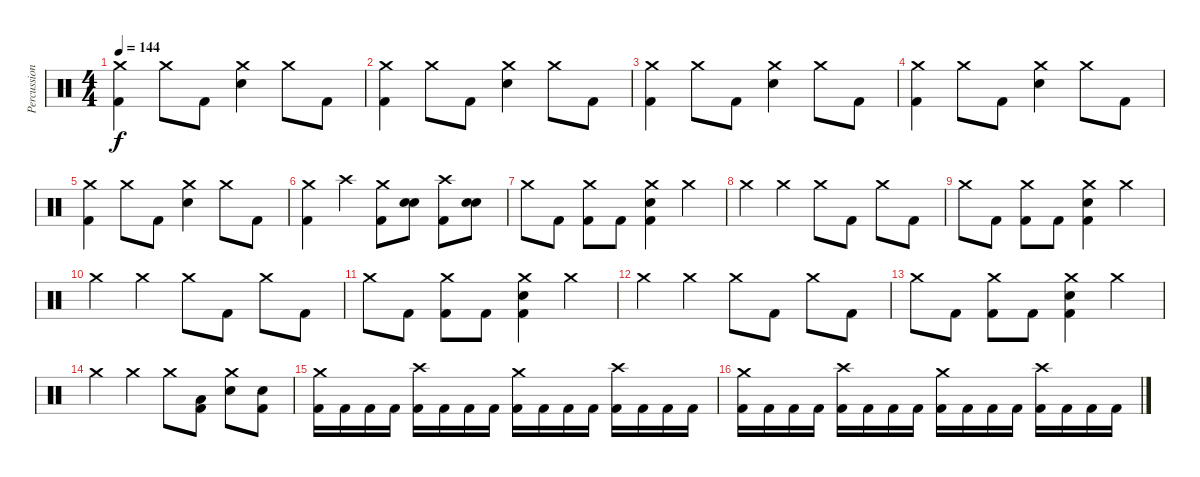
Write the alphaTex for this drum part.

\track ("Percussion" "Percussion") {instrument percussion}
\staff {score}
\articulation defaults
\ts (4 4)
\tempo 144
\clef neutral
\ks c
("Crash medium (hit)" "Kick (hit) 2").4{dy f} "Crash medium (hit)".8 "Kick (hit) 2".8 ("Crash medium (hit)" "Electric Snare (hit)").4 "Crash medium (hit)".8 "Kick (hit) 2".8 |
("Crash medium (hit)" "Kick (hit) 2").4 "Crash medium (hit)".8 "Kick (hit) 2".8 ("Crash medium (hit)" "Electric Snare (hit)").4 "Crash medium (hit)".8 "Kick (hit) 2".8 |
("Crash medium (hit)" "Kick (hit) 2").4 "Crash medium (hit)".8 "Kick (hit) 2".8 ("Crash medium (hit)" "Electric Snare (hit)").4 "Crash medium (hit)".8 "Kick (hit) 2".8 |
("Crash medium (hit)" "Kick (hit) 2").4 "Crash medium (hit)".8 "Kick (hit) 2".8 ("Crash medium (hit)" "Electric Snare (hit)").4 "Crash medium (hit)".8 "Kick (hit) 2".8 |
("Crash medium (hit)" "Kick (hit) 2").4 "Crash medium (hit)".8 "Kick (hit) 2".8 ("Crash medium (hit)" "Electric Snare (hit)").4 "Crash medium (hit)".8 "Kick (hit) 2".8 |
("Crash medium (hit)" "Kick (hit) 2").4 "Crash high (hit)".4 ("Crash medium (hit)" "Kick (hit) 2").8 ("Electric Snare (hit)" "Electric Snare (hit)").8 ("Crash high (hit)" "Kick (hit) 2").8 ("Electric Snare (hit)" "Electric Snare (hit)").8 |
"Crash medium (hit)".8 "Kick (hit) 2".8 ("Crash medium (hit)" "Kick (hit) 2").8 "Kick (hit) 2".8 ("Crash medium (hit)" "Electric Snare (hit)" "Kick (hit) 2").4 "Crash medium (hit)".4 |
"Crash medium (hit)".4 "Crash medium (hit)".4 "Crash medium (hit)".8 "Kick (hit) 2".8 "Crash medium (hit)".8 "Kick (hit) 2".8 |
"Crash medium (hit)".8 "Kick (hit) 2".8 ("Crash medium (hit)" "Kick (hit) 2").8 "Kick (hit) 2".8 ("Crash medium (hit)" "Electric Snare (hit)" "Kick (hit) 2").4 "Crash medium (hit)".4 |
"Crash medium (hit)".4 "Crash medium (hit)".4 "Crash medium (hit)".8 "Kick (hit) 2".8 "Crash medium (hit)".8 "Kick (hit) 2".8 |
"Crash medium (hit)".8 "Kick (hit) 2".8 ("Crash medium (hit)" "Kick (hit) 2").8 "Kick (hit) 2".8 ("Crash medium (hit)" "Electric Snare (hit)" "Kick (hit) 2").4 "Crash medium (hit)".4 |
"Crash medium (hit)".4 "Crash medium (hit)".4 "Crash medium (hit)".8 "Kick (hit) 2".8 "Crash medium (hit)".8 "Kick (hit) 2".8 |
"Crash medium (hit)".8 "Kick (hit) 2".8 ("Crash medium (hit)" "Kick (hit) 2").8 "Kick (hit) 2".8 ("Crash medium (hit)" "Electric Snare (hit)" "Kick (hit) 2").4 "Crash medium (hit)".4 |
"Crash medium (hit)".4 "Crash medium (hit)".4 "Crash medium (hit)".8 ("Low Tom (hit)" "Kick (hit) 2").8 ("Crash medium (hit)" "Electric Snare (hit)").8 ("Electric Snare (hit)" "Kick (hit) 2").8 |
("Crash medium (hit)" "Kick (hit) 2").16 "Kick (hit) 2".16 "Kick (hit) 2".16 "Kick (hit) 2".16 ("Crash high (hit)" "Kick (hit) 2").16 "Kick (hit) 2".16 "Kick (hit) 2".16 "Kick (hit) 2".16 ("Crash medium (hit)" "Kick (hit) 2").16 "Kick (hit) 2".16 "Kick (hit) 2".16 "Kick (hit) 2".16 ("Crash high (hit)" "Kick (hit) 2").16 "Kick (hit) 2".16 "Kick (hit) 2".16 "Kick (hit) 2".16 |
("Crash medium (hit)" "Kick (hit) 2").16 "Kick (hit) 2".16 "Kick (hit) 2".16 "Kick (hit) 2".16 ("Crash high (hit)" "Kick (hit) 2").16 "Kick (hit) 2".16 "Kick (hit) 2".16 "Kick (hit) 2".16 ("Crash medium (hit)" "Kick (hit) 2").16 "Kick (hit) 2".16 "Kick (hit) 2".16 "Kick (hit) 2".16 ("Crash high (hit)" "Kick (hit) 2").16 "Kick (hit) 2".16 "Kick (hit) 2".16 "Kick (hit) 2".16
